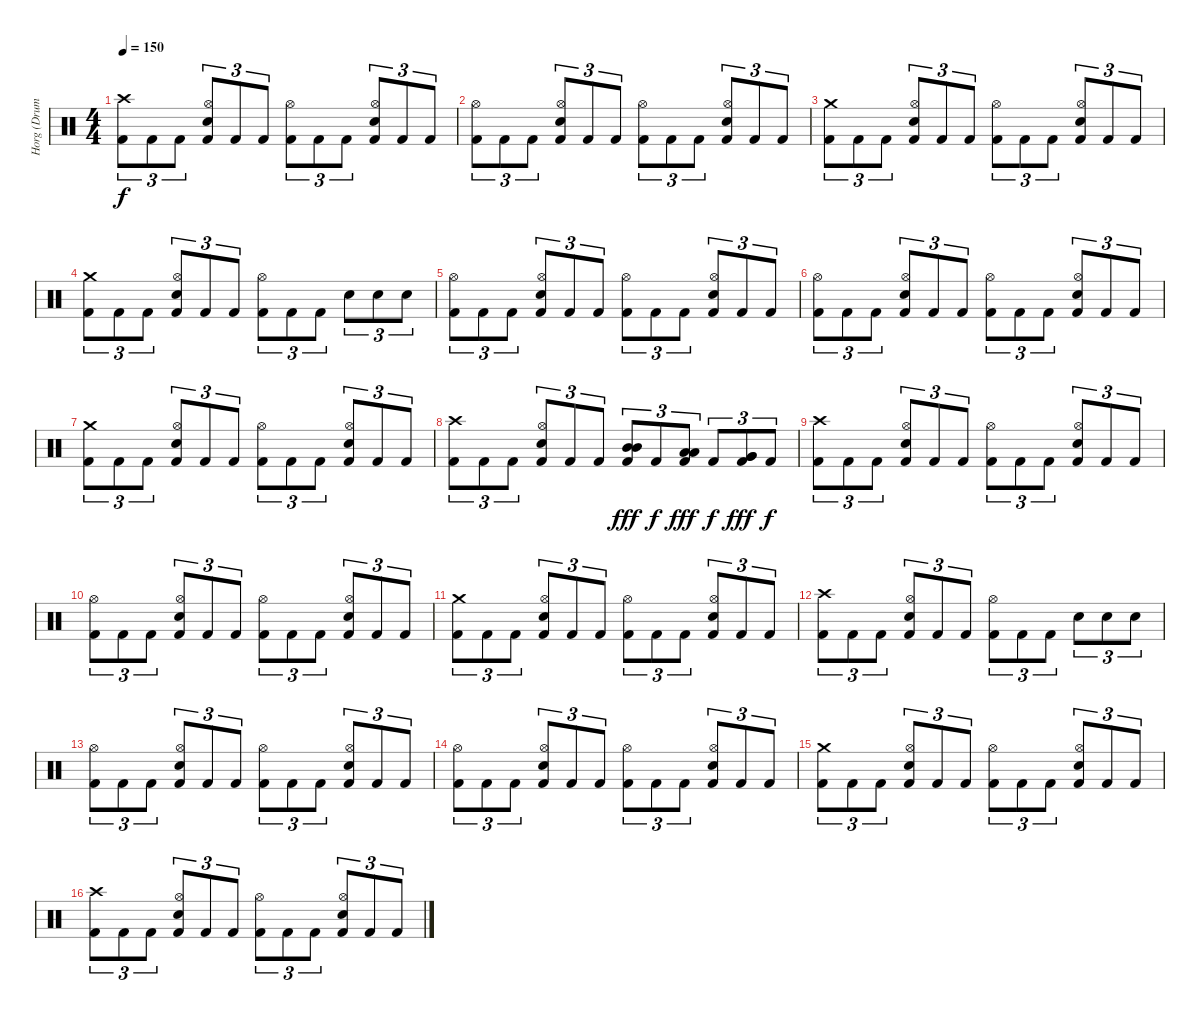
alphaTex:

\track ("Horg (Drums)" "Horg (Drum") {instrument percussion}
\staff {score}
\articulation defaults
\ts (4 4)
\tempo 150
\clef neutral
\ks c
("Crash high (hit)" "Kick (hit) 2").8{tu (3 2) dy f volume 15} "Kick (hit) 2".8{tu (3 2)} "Kick (hit) 2".8{tu (3 2)} ("Hi-Hat (open)" "Electric Snare (hit)" "Kick (hit) 2").8{tu (3 2)} "Kick (hit) 2".8{tu (3 2)} "Kick (hit) 2".8{tu (3 2)} ("Hi-Hat (open)" "Kick (hit) 2").8{tu (3 2)} "Kick (hit) 2".8{tu (3 2)} "Kick (hit) 2".8{tu (3 2)} ("Hi-Hat (open)" "Electric Snare (hit)" "Kick (hit) 2").8{tu (3 2)} "Kick (hit) 2".8{tu (3 2)} "Kick (hit) 2".8{tu (3 2)} |
("Hi-Hat (open)" "Kick (hit) 2").8{tu (3 2)} "Kick (hit) 2".8{tu (3 2)} "Kick (hit) 2".8{tu (3 2)} ("Hi-Hat (open)" "Electric Snare (hit)" "Kick (hit) 2").8{tu (3 2)} "Kick (hit) 2".8{tu (3 2)} "Kick (hit) 2".8{tu (3 2)} ("Hi-Hat (open)" "Kick (hit) 2").8{tu (3 2)} "Kick (hit) 2".8{tu (3 2)} "Kick (hit) 2".8{tu (3 2)} ("Hi-Hat (open)" "Electric Snare (hit)" "Kick (hit) 2").8{tu (3 2)} "Kick (hit) 2".8{tu (3 2)} "Kick (hit) 2".8{tu (3 2)} |
("Crash medium (hit)" "Kick (hit) 2").8{tu (3 2)} "Kick (hit) 2".8{tu (3 2)} "Kick (hit) 2".8{tu (3 2)} ("Hi-Hat (open)" "Electric Snare (hit)" "Kick (hit) 2").8{tu (3 2)} "Kick (hit) 2".8{tu (3 2)} "Kick (hit) 2".8{tu (3 2)} ("Hi-Hat (open)" "Kick (hit) 2").8{tu (3 2)} "Kick (hit) 2".8{tu (3 2)} "Kick (hit) 2".8{tu (3 2)} ("Hi-Hat (open)" "Electric Snare (hit)" "Kick (hit) 2").8{tu (3 2)} "Kick (hit) 2".8{tu (3 2)} "Kick (hit) 2".8{tu (3 2)} |
("Crash medium (hit)" "Kick (hit) 2").8{tu (3 2)} "Kick (hit) 2".8{tu (3 2)} "Kick (hit) 2".8{tu (3 2)} ("Hi-Hat (open)" "Electric Snare (hit)" "Kick (hit) 2").8{tu (3 2)} "Kick (hit) 2".8{tu (3 2)} "Kick (hit) 2".8{tu (3 2)} ("Hi-Hat (open)" "Kick (hit) 2").8{tu (3 2)} "Kick (hit) 2".8{tu (3 2)} "Kick (hit) 2".8{tu (3 2)} "Electric Snare (hit)".8{tu (3 2)} "Electric Snare (hit)".8{tu (3 2)} "Electric Snare (hit)".8{tu (3 2)} |
("Hi-Hat (open)" "Kick (hit) 2").8{tu (3 2)} "Kick (hit) 2".8{tu (3 2)} "Kick (hit) 2".8{tu (3 2)} ("Hi-Hat (open)" "Electric Snare (hit)" "Kick (hit) 2").8{tu (3 2)} "Kick (hit) 2".8{tu (3 2)} "Kick (hit) 2".8{tu (3 2)} ("Hi-Hat (open)" "Kick (hit) 2").8{tu (3 2)} "Kick (hit) 2".8{tu (3 2)} "Kick (hit) 2".8{tu (3 2)} ("Hi-Hat (open)" "Electric Snare (hit)" "Kick (hit) 2").8{tu (3 2)} "Kick (hit) 2".8{tu (3 2)} "Kick (hit) 2".8{tu (3 2)} |
("Hi-Hat (open)" "Kick (hit) 2").8{tu (3 2)} "Kick (hit) 2".8{tu (3 2)} "Kick (hit) 2".8{tu (3 2)} ("Hi-Hat (open)" "Electric Snare (hit)" "Kick (hit) 2").8{tu (3 2)} "Kick (hit) 2".8{tu (3 2)} "Kick (hit) 2".8{tu (3 2)} ("Hi-Hat (open)" "Kick (hit) 2").8{tu (3 2)} "Kick (hit) 2".8{tu (3 2)} "Kick (hit) 2".8{tu (3 2)} ("Hi-Hat (open)" "Electric Snare (hit)" "Kick (hit) 2").8{tu (3 2)} "Kick (hit) 2".8{tu (3 2)} "Kick (hit) 2".8{tu (3 2)} |
("Crash medium (hit)" "Kick (hit) 2").8{tu (3 2)} "Kick (hit) 2".8{tu (3 2)} "Kick (hit) 2".8{tu (3 2)} ("Hi-Hat (open)" "Electric Snare (hit)" "Kick (hit) 2").8{tu (3 2)} "Kick (hit) 2".8{tu (3 2)} "Kick (hit) 2".8{tu (3 2)} ("Hi-Hat (open)" "Kick (hit) 2").8{tu (3 2)} "Kick (hit) 2".8{tu (3 2)} "Kick (hit) 2".8{tu (3 2)} ("Hi-Hat (open)" "Electric Snare (hit)" "Kick (hit) 2").8{tu (3 2)} "Kick (hit) 2".8{tu (3 2)} "Kick (hit) 2".8{tu (3 2)} |
("Crash high (hit)" "Kick (hit) 2").8{tu (3 2)} "Kick (hit) 2".8{tu (3 2)} "Kick (hit) 2".8{tu (3 2)} ("Hi-Hat (open)" "Electric Snare (hit)" "Kick (hit) 2").8{tu (3 2)} "Kick (hit) 2".8{tu (3 2)} "Kick (hit) 2".8{tu (3 2)} ("Mid Tom (hit)" "Mid Tom (hit)" "Kick (hit) 2").8{tu (3 2) dy fff} "Kick (hit) 2".8{tu (3 2) dy f} ("Low Tom (hit)" "Low Tom (hit)" "Kick (hit) 2").8{tu (3 2) dy fff} "Kick (hit) 2".8{tu (3 2) dy f} ("Very Low Tom (hit)" "Very Low Tom (hit)" "Kick (hit) 2").8{tu (3 2) dy fff} "Kick (hit) 2".8{tu (3 2) dy f} |
("Crash high (hit)" "Kick (hit) 2").8{tu (3 2)} "Kick (hit) 2".8{tu (3 2)} "Kick (hit) 2".8{tu (3 2)} ("Hi-Hat (open)" "Electric Snare (hit)" "Kick (hit) 2").8{tu (3 2)} "Kick (hit) 2".8{tu (3 2)} "Kick (hit) 2".8{tu (3 2)} ("Hi-Hat (open)" "Kick (hit) 2").8{tu (3 2)} "Kick (hit) 2".8{tu (3 2)} "Kick (hit) 2".8{tu (3 2)} ("Hi-Hat (open)" "Electric Snare (hit)" "Kick (hit) 2").8{tu (3 2)} "Kick (hit) 2".8{tu (3 2)} "Kick (hit) 2".8{tu (3 2)} |
("Hi-Hat (open)" "Kick (hit) 2").8{tu (3 2)} "Kick (hit) 2".8{tu (3 2)} "Kick (hit) 2".8{tu (3 2)} ("Hi-Hat (open)" "Electric Snare (hit)" "Kick (hit) 2").8{tu (3 2)} "Kick (hit) 2".8{tu (3 2)} "Kick (hit) 2".8{tu (3 2)} ("Hi-Hat (open)" "Kick (hit) 2").8{tu (3 2)} "Kick (hit) 2".8{tu (3 2)} "Kick (hit) 2".8{tu (3 2)} ("Hi-Hat (open)" "Electric Snare (hit)" "Kick (hit) 2").8{tu (3 2)} "Kick (hit) 2".8{tu (3 2)} "Kick (hit) 2".8{tu (3 2)} |
("Crash medium (hit)" "Kick (hit) 2").8{tu (3 2)} "Kick (hit) 2".8{tu (3 2)} "Kick (hit) 2".8{tu (3 2)} ("Hi-Hat (open)" "Electric Snare (hit)" "Kick (hit) 2").8{tu (3 2)} "Kick (hit) 2".8{tu (3 2)} "Kick (hit) 2".8{tu (3 2)} ("Hi-Hat (open)" "Kick (hit) 2").8{tu (3 2)} "Kick (hit) 2".8{tu (3 2)} "Kick (hit) 2".8{tu (3 2)} ("Hi-Hat (open)" "Electric Snare (hit)" "Kick (hit) 2").8{tu (3 2)} "Kick (hit) 2".8{tu (3 2)} "Kick (hit) 2".8{tu (3 2)} |
("Crash high (hit)" "Kick (hit) 2").8{tu (3 2)} "Kick (hit) 2".8{tu (3 2)} "Kick (hit) 2".8{tu (3 2)} ("Hi-Hat (open)" "Electric Snare (hit)" "Kick (hit) 2").8{tu (3 2)} "Kick (hit) 2".8{tu (3 2)} "Kick (hit) 2".8{tu (3 2)} ("Hi-Hat (open)" "Kick (hit) 2").8{tu (3 2)} "Kick (hit) 2".8{tu (3 2)} "Kick (hit) 2".8{tu (3 2)} "Electric Snare (hit)".8{tu (3 2)} "Electric Snare (hit)".8{tu (3 2)} "Electric Snare (hit)".8{tu (3 2)} |
("Hi-Hat (open)" "Kick (hit) 2").8{tu (3 2)} "Kick (hit) 2".8{tu (3 2)} "Kick (hit) 2".8{tu (3 2)} ("Hi-Hat (open)" "Electric Snare (hit)" "Kick (hit) 2").8{tu (3 2)} "Kick (hit) 2".8{tu (3 2)} "Kick (hit) 2".8{tu (3 2)} ("Hi-Hat (open)" "Kick (hit) 2").8{tu (3 2)} "Kick (hit) 2".8{tu (3 2)} "Kick (hit) 2".8{tu (3 2)} ("Hi-Hat (open)" "Electric Snare (hit)" "Kick (hit) 2").8{tu (3 2)} "Kick (hit) 2".8{tu (3 2)} "Kick (hit) 2".8{tu (3 2)} |
("Hi-Hat (open)" "Kick (hit) 2").8{tu (3 2)} "Kick (hit) 2".8{tu (3 2)} "Kick (hit) 2".8{tu (3 2)} ("Hi-Hat (open)" "Electric Snare (hit)" "Kick (hit) 2").8{tu (3 2)} "Kick (hit) 2".8{tu (3 2)} "Kick (hit) 2".8{tu (3 2)} ("Hi-Hat (open)" "Kick (hit) 2").8{tu (3 2)} "Kick (hit) 2".8{tu (3 2)} "Kick (hit) 2".8{tu (3 2)} ("Hi-Hat (open)" "Electric Snare (hit)" "Kick (hit) 2").8{tu (3 2)} "Kick (hit) 2".8{tu (3 2)} "Kick (hit) 2".8{tu (3 2)} |
("Crash medium (hit)" "Kick (hit) 2").8{tu (3 2)} "Kick (hit) 2".8{tu (3 2)} "Kick (hit) 2".8{tu (3 2)} ("Hi-Hat (open)" "Electric Snare (hit)" "Kick (hit) 2").8{tu (3 2)} "Kick (hit) 2".8{tu (3 2)} "Kick (hit) 2".8{tu (3 2)} ("Hi-Hat (open)" "Kick (hit) 2").8{tu (3 2)} "Kick (hit) 2".8{tu (3 2)} "Kick (hit) 2".8{tu (3 2)} ("Hi-Hat (open)" "Electric Snare (hit)" "Kick (hit) 2").8{tu (3 2)} "Kick (hit) 2".8{tu (3 2)} "Kick (hit) 2".8{tu (3 2)} |
("Crash high (hit)" "Kick (hit) 2").8{tu (3 2)} "Kick (hit) 2".8{tu (3 2)} "Kick (hit) 2".8{tu (3 2)} ("Hi-Hat (open)" "Electric Snare (hit)" "Kick (hit) 2").8{tu (3 2)} "Kick (hit) 2".8{tu (3 2)} "Kick (hit) 2".8{tu (3 2)} ("Hi-Hat (open)" "Kick (hit) 2").8{tu (3 2)} "Kick (hit) 2".8{tu (3 2)} "Kick (hit) 2".8{tu (3 2)} ("Hi-Hat (open)" "Electric Snare (hit)" "Kick (hit) 2").8{tu (3 2)} "Kick (hit) 2".8{tu (3 2)} "Kick (hit) 2".8{tu (3 2)}
